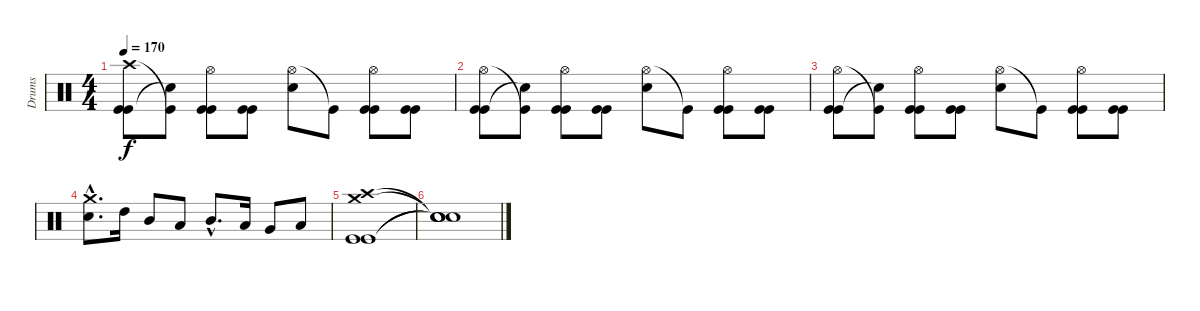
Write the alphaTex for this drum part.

\track ("Drums" "Drums") {instrument percussion}
\staff {score}
\articulation defaults
\ts (4 4)
\tempo 170
\clef neutral
\ks c
("Crash high (hit)" "Kick (hit)" "Kick (hit)").8{dy f} ("Kick (hit)"{t} "Snare (hit)"{t}).8 ("Hi-Hat (open)" "Kick (hit)" "Kick (hit)").8 ("Kick (hit)" "Kick (hit)").8 ("Hi-Hat (open)" "Snare (hit) 2").8 "Kick (hit)"{t}.8 ("Hi-Hat (open)" "Kick (hit)" "Kick (hit)").8 ("Kick (hit)" "Kick (hit)").8 |
("Hi-Hat (open)" "Kick (hit)" "Kick (hit)").8 ("Kick (hit)"{t} "Snare (hit)"{t}).8 ("Hi-Hat (open)" "Kick (hit)" "Kick (hit)").8 ("Kick (hit)" "Kick (hit)").8 ("Hi-Hat (open)" "Snare (hit) 2").8 "Kick (hit)"{t}.8 ("Hi-Hat (open)" "Kick (hit)" "Kick (hit)").8 ("Kick (hit)" "Kick (hit)").8 |
("Hi-Hat (open)" "Kick (hit)" "Kick (hit)").8 ("Kick (hit)"{t} "Snare (hit)"{t}).8 ("Hi-Hat (open)" "Kick (hit)" "Kick (hit)").8 ("Kick (hit)" "Kick (hit)").8 ("Hi-Hat (open)" "Snare (hit) 2").8 "Kick (hit)"{t}.8 ("Hi-Hat (open)" "Kick (hit)" "Kick (hit)").8 ("Kick (hit)" "Kick (hit)").8 |
("Crash medium (hit)"{hac} "Snare (hit) 2"{hac}).8{d} "High Tom (hit)".16 "Mid Tom (hit)".8 "Low Tom (hit)".8 "Mid Tom (hit)"{hac}.8{d} "Low Tom (hit)".16 "Very Low Tom (hit)".8 "Low Floor Tom (hit)".8 |
("Crash high (hit)" "Crash medium (hit)" "Kick (hit)" "Kick (hit)").1 |
("Snare (hit)"{t} "Snare (hit)"{t} "Snare (hit)"{t} "Snare (hit)"{t}).1
